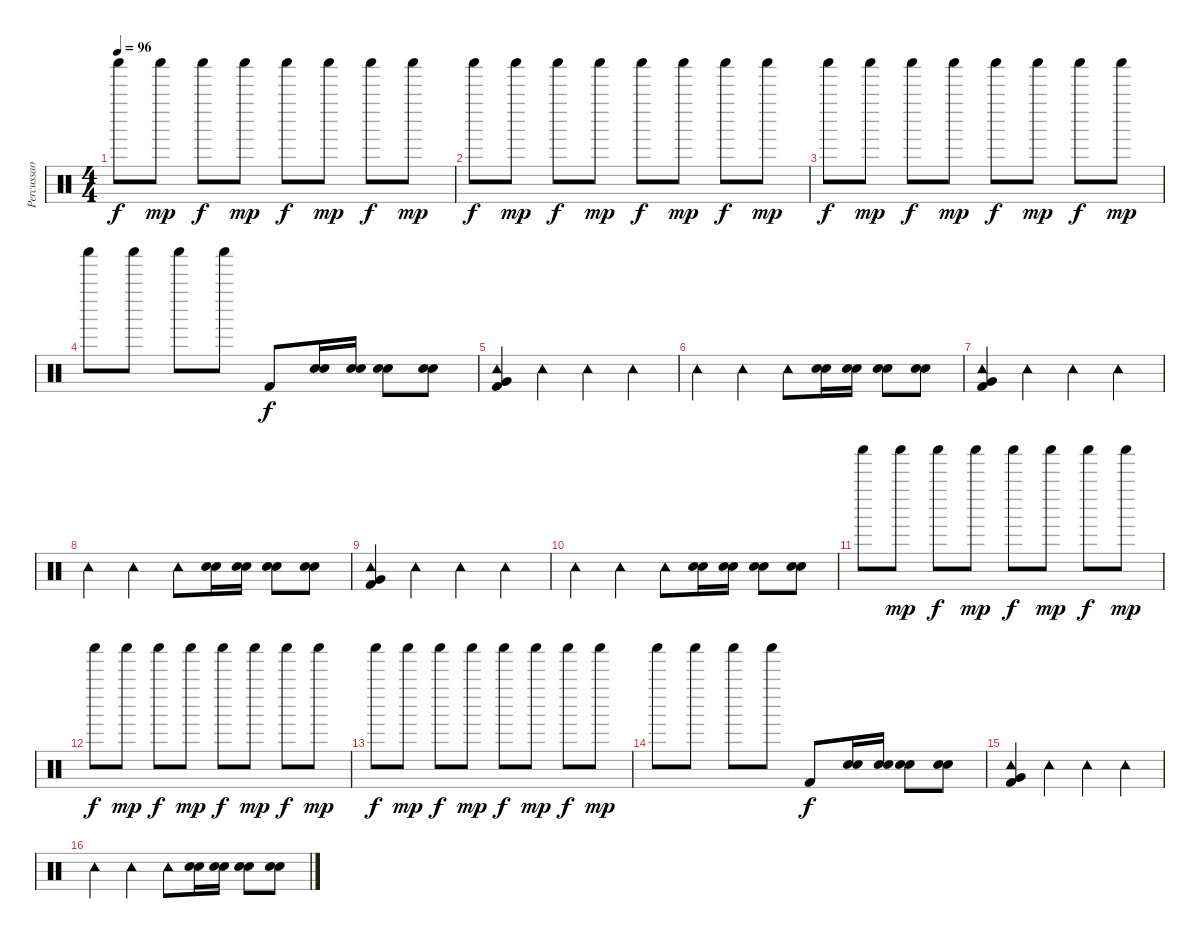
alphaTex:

\track ("Percussao" "Percussao") {instrument percussion}
\staff {score}
\articulation defaults
\ts (4 4)
\tempo 96
\clef neutral
\ks c "Shaker (hit)".8{dy f volume 7} "Shaker (hit)".8{dy mp} "Shaker (hit)".8{dy f} "Shaker (hit)".8{dy mp} "Shaker (hit)".8{dy f} "Shaker (hit)".8{dy mp} "Shaker (hit)".8{dy f} "Shaker (hit)".8{dy mp}
|
"Shaker (hit)".8{dy f volume 7} "Shaker (hit)".8{dy mp} "Shaker (hit)".8{dy f} "Shaker (hit)".8{dy mp} "Shaker (hit)".8{dy f} "Shaker (hit)".8{dy mp} "Shaker (hit)".8{dy f} "Shaker (hit)".8{dy mp} |
"Shaker (hit)".8{dy f volume 7} "Shaker (hit)".8{dy mp} "Shaker (hit)".8{dy f} "Shaker (hit)".8{dy mp} "Shaker (hit)".8{dy f} "Shaker (hit)".8{dy mp} "Shaker (hit)".8{dy f} "Shaker (hit)".8{dy mp} |
"Shaker (hit)".8 "Shaker (hit)".8 "Shaker (hit)".8 "Shaker (hit)".8 "Kick (hit) 2".8{dy f volume 13} ("Electric Snare (hit)" "Snare (hit) 2").16 ("Electric Snare (hit)" "Snare (hit) 2").16 ("Electric Snare (hit)" "Snare (hit) 2").8 ("Electric Snare (hit)" "Snare (hit) 2").8 |
("Tambourine (hit)" "Very Low Tom (hit)" "Kick (hit) 2").4 "Tambourine (hit)".4 "Tambourine (hit)".4 "Tambourine (hit)".4 |
"Tambourine (hit)".4 "Tambourine (hit)".4 "Tambourine (hit)".8 ("Electric Snare (hit)" "Snare (hit) 2").16 ("Electric Snare (hit)" "Snare (hit) 2").16 ("Electric Snare (hit)" "Snare (hit) 2").8 ("Electric Snare (hit)" "Snare (hit) 2").8 |
("Tambourine (hit)" "Very Low Tom (hit)" "Kick (hit) 2").4 "Tambourine (hit)".4 "Tambourine (hit)".4 "Tambourine (hit)".4 |
"Tambourine (hit)".4 "Tambourine (hit)".4 "Tambourine (hit)".8 ("Electric Snare (hit)" "Snare (hit) 2").16 ("Electric Snare (hit)" "Snare (hit) 2").16 ("Electric Snare (hit)" "Snare (hit) 2").8 ("Electric Snare (hit)" "Snare (hit) 2").8 |
("Tambourine (hit)" "Very Low Tom (hit)" "Kick (hit) 2").4 "Tambourine (hit)".4 "Tambourine (hit)".4 "Tambourine (hit)".4 |
"Tambourine (hit)".4 "Tambourine (hit)".4 "Tambourine (hit)".8 ("Electric Snare (hit)" "Snare (hit) 2").16 ("Electric Snare (hit)" "Snare (hit) 2").16 ("Electric Snare (hit)" "Snare (hit) 2").8 ("Electric Snare (hit)" "Snare (hit) 2").8 |
"Shaker (hit)".8{volume 4} "Shaker (hit)".8{dy mp} "Shaker (hit)".8{dy f} "Shaker (hit)".8{dy mp} "Shaker (hit)".8{dy f} "Shaker (hit)".8{dy mp} "Shaker (hit)".8{dy f} "Shaker (hit)".8{dy mp} |
"Shaker (hit)".8{dy f volume 4} "Shaker (hit)".8{dy mp} "Shaker (hit)".8{dy f} "Shaker (hit)".8{dy mp} "Shaker (hit)".8{dy f} "Shaker (hit)".8{dy mp} "Shaker (hit)".8{dy f} "Shaker (hit)".8{dy mp} |
"Shaker (hit)".8{dy f volume 4} "Shaker (hit)".8{dy mp} "Shaker (hit)".8{dy f} "Shaker (hit)".8{dy mp} "Shaker (hit)".8{dy f} "Shaker (hit)".8{dy mp} "Shaker (hit)".8{dy f} "Shaker (hit)".8{dy mp} |
"Shaker (hit)".8 "Shaker (hit)".8 "Shaker (hit)".8 "Shaker (hit)".8 "Kick (hit) 2".8{dy f volume 13} ("Electric Snare (hit)" "Snare (hit) 2").16 ("Electric Snare (hit)" "Snare (hit) 2").16 ("Electric Snare (hit)" "Snare (hit) 2").8 ("Electric Snare (hit)" "Snare (hit) 2").8 |
("Tambourine (hit)" "Very Low Tom (hit)" "Kick (hit) 2").4 "Tambourine (hit)".4 "Tambourine (hit)".4 "Tambourine (hit)".4 |
"Tambourine (hit)".4 "Tambourine (hit)".4 "Tambourine (hit)".8 ("Electric Snare (hit)" "Snare (hit) 2").16 ("Electric Snare (hit)" "Snare (hit) 2").16 ("Electric Snare (hit)" "Snare (hit) 2").8 ("Electric Snare (hit)" "Snare (hit) 2").8
